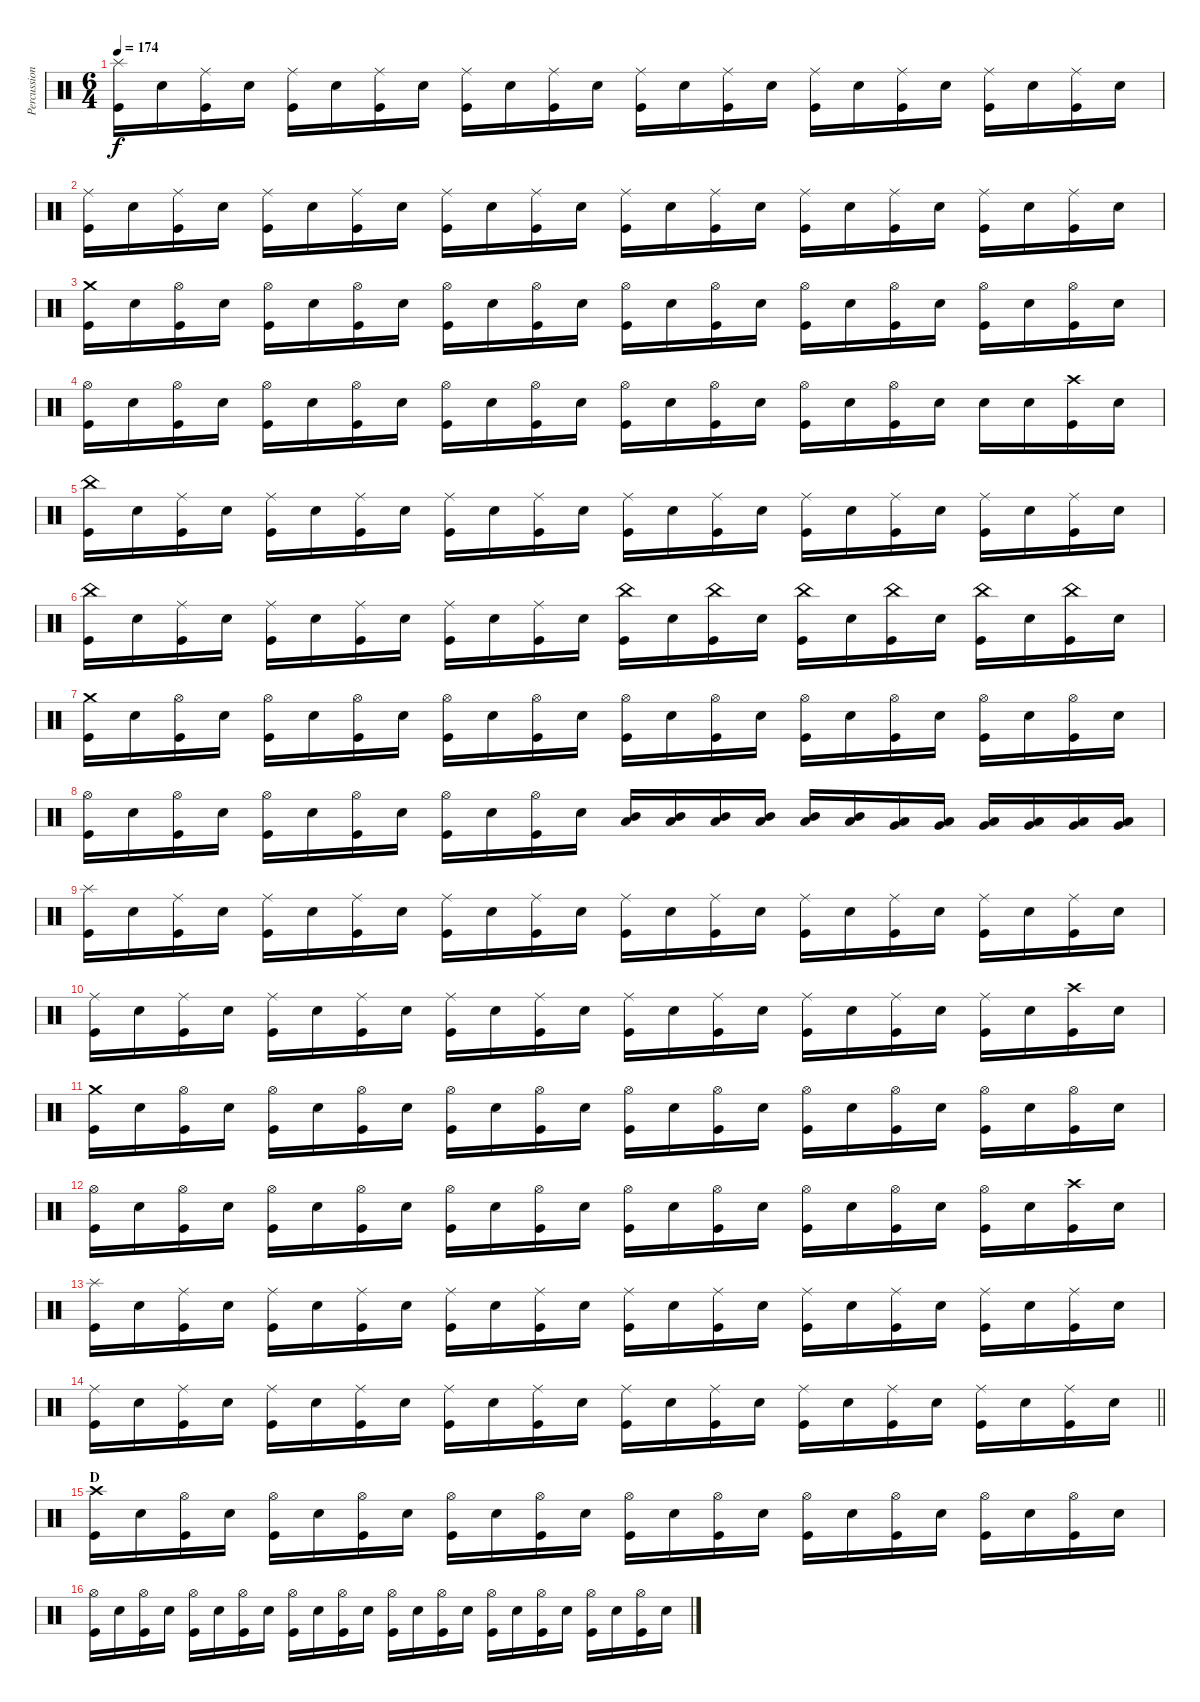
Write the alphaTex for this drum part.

\track ("Percussion" "Percussion") {instrument percussion}
\staff {score}
\articulation defaults
\ts (6 4)
\tempo 174
\clef neutral
\ks c
("Splash (hit)" "Kick (hit)").16{dy f} "Snare (hit) 2".16 ("Ride (middle)" "Kick (hit)").16 "Snare (hit) 2".16 ("Ride (middle)" "Kick (hit)").16 "Snare (hit) 2".16 ("Ride (middle)" "Kick (hit)").16 "Snare (hit) 2".16 ("Ride (middle)" "Kick (hit)").16 "Snare (hit) 2".16 ("Ride (middle)" "Kick (hit)").16 "Snare (hit) 2".16 ("Ride (middle)" "Kick (hit)").16 "Snare (hit) 2".16 ("Ride (middle)" "Kick (hit)").16 "Snare (hit) 2".16 ("Ride (middle)" "Kick (hit)").16 "Snare (hit) 2".16 ("Ride (middle)" "Kick (hit)").16 "Snare (hit) 2".16 ("Ride (middle)" "Kick (hit)").16 "Snare (hit) 2".16 ("Ride (middle)" "Kick (hit)").16 "Snare (hit) 2".16 |
("Ride (middle)" "Kick (hit)").16 "Snare (hit) 2".16 ("Ride (middle)" "Kick (hit)").16 "Snare (hit) 2".16 ("Ride (middle)" "Kick (hit)").16 "Snare (hit) 2".16 ("Ride (middle)" "Kick (hit)").16 "Snare (hit) 2".16 ("Ride (middle)" "Kick (hit)").16 "Snare (hit) 2".16 ("Ride (middle)" "Kick (hit)").16 "Snare (hit) 2".16 ("Ride (middle)" "Kick (hit)").16 "Snare (hit) 2".16 ("Ride (middle)" "Kick (hit)").16 "Snare (hit) 2".16 ("Ride (middle)" "Kick (hit)").16 "Snare (hit) 2".16 ("Ride (middle)" "Kick (hit)").16 "Snare (hit) 2".16 ("Ride (middle)" "Kick (hit)").16 "Snare (hit) 2".16 ("Ride (middle)" "Kick (hit)").16 "Snare (hit) 2".16 |
("Crash medium (hit)" "Kick (hit)").16 "Snare (hit) 2".16 ("Hi-Hat (open)" "Kick (hit)").16 "Snare (hit) 2".16 ("Hi-Hat (open)" "Kick (hit)").16 "Snare (hit) 2".16 ("Hi-Hat (open)" "Kick (hit)").16 "Snare (hit) 2".16 ("Hi-Hat (open)" "Kick (hit)").16 "Snare (hit) 2".16 ("Hi-Hat (open)" "Kick (hit)").16 "Snare (hit) 2".16 ("Hi-Hat (open)" "Kick (hit)").16 "Snare (hit) 2".16 ("Hi-Hat (open)" "Kick (hit)").16 "Snare (hit) 2".16 ("Hi-Hat (open)" "Kick (hit)").16 "Snare (hit) 2".16 ("Hi-Hat (open)" "Kick (hit)").16 "Snare (hit) 2".16 ("Hi-Hat (open)" "Kick (hit)").16 "Snare (hit) 2".16 ("Hi-Hat (open)" "Kick (hit)").16 "Snare (hit) 2".16 |
("Hi-Hat (open)" "Kick (hit)").16 "Snare (hit) 2".16 ("Hi-Hat (open)" "Kick (hit)").16 "Snare (hit) 2".16 ("Hi-Hat (open)" "Kick (hit)").16 "Snare (hit) 2".16 ("Hi-Hat (open)" "Kick (hit)").16 "Snare (hit) 2".16 ("Hi-Hat (open)" "Kick (hit)").16 "Snare (hit) 2".16 ("Hi-Hat (open)" "Kick (hit)").16 "Snare (hit) 2".16 ("Hi-Hat (open)" "Kick (hit)").16 "Snare (hit) 2".16 ("Hi-Hat (open)" "Kick (hit)").16 "Snare (hit) 2".16 ("Hi-Hat (open)" "Kick (hit)").16 "Snare (hit) 2".16 ("Hi-Hat (open)" "Kick (hit)").16 "Snare (hit) 2".16 "Snare (hit) 2".16 "Snare (hit) 2".16 ("Crash high (hit)" "Kick (hit)").16 "Snare (hit) 2".16 |
("China (hit)" "Kick (hit)").16 "Snare (hit) 2".16 ("Ride (middle)" "Kick (hit)").16 "Snare (hit) 2".16 ("Ride (middle)" "Kick (hit)").16 "Snare (hit) 2".16 ("Ride (middle)" "Kick (hit)").16 "Snare (hit) 2".16 ("Ride (middle)" "Kick (hit)").16 "Snare (hit) 2".16 ("Ride (middle)" "Kick (hit)").16 "Snare (hit) 2".16 ("Ride (middle)" "Kick (hit)").16 "Snare (hit) 2".16 ("Ride (middle)" "Kick (hit)").16 "Snare (hit) 2".16 ("Ride (middle)" "Kick (hit)").16 "Snare (hit) 2".16 ("Ride (middle)" "Kick (hit)").16 "Snare (hit) 2".16 ("Ride (middle)" "Kick (hit)").16 "Snare (hit) 2".16 ("Ride (middle)" "Kick (hit)").16 "Snare (hit) 2".16 |
("China (hit)" "Kick (hit)").16 "Snare (hit) 2".16 ("Ride (middle)" "Kick (hit)").16 "Snare (hit) 2".16 ("Ride (middle)" "Kick (hit)").16 "Snare (hit) 2".16 ("Ride (middle)" "Kick (hit)").16 "Snare (hit) 2".16 ("Ride (middle)" "Kick (hit)").16 "Snare (hit) 2".16 ("Ride (middle)" "Kick (hit)").16 "Snare (hit) 2".16 ("China (hit)" "Kick (hit)").16 "Snare (hit) 2".16 ("China (hit)" "Kick (hit)").16 "Snare (hit) 2".16 ("China (hit)" "Kick (hit)").16 "Snare (hit) 2".16 ("China (hit)" "Kick (hit)").16 "Snare (hit) 2".16 ("China (hit)" "Kick (hit)").16 "Snare (hit) 2".16 ("China (hit)" "Kick (hit)").16 "Snare (hit) 2".16 |
("Crash medium (hit)" "Kick (hit)").16 "Snare (hit) 2".16 ("Hi-Hat (open)" "Kick (hit)").16 "Snare (hit) 2".16 ("Hi-Hat (open)" "Kick (hit)").16 "Snare (hit) 2".16 ("Hi-Hat (open)" "Kick (hit)").16 "Snare (hit) 2".16 ("Hi-Hat (open)" "Kick (hit)").16 "Snare (hit) 2".16 ("Hi-Hat (open)" "Kick (hit)").16 "Snare (hit) 2".16 ("Hi-Hat (open)" "Kick (hit)").16 "Snare (hit) 2".16 ("Hi-Hat (open)" "Kick (hit)").16 "Snare (hit) 2".16 ("Hi-Hat (open)" "Kick (hit)").16 "Snare (hit) 2".16 ("Hi-Hat (open)" "Kick (hit)").16 "Snare (hit) 2".16 ("Hi-Hat (open)" "Kick (hit)").16 "Snare (hit) 2".16 ("Hi-Hat (open)" "Kick (hit)").16 "Snare (hit) 2".16 |
("Hi-Hat (open)" "Kick (hit)").16 "Snare (hit) 2".16 ("Hi-Hat (open)" "Kick (hit)").16 "Snare (hit) 2".16 ("Hi-Hat (open)" "Kick (hit)").16 "Snare (hit) 2".16 ("Hi-Hat (open)" "Kick (hit)").16 "Snare (hit) 2".16 ("Hi-Hat (open)" "Kick (hit)").16 "Snare (hit) 2".16 ("Hi-Hat (open)" "Kick (hit)").16 "Snare (hit) 2".16 ("Mid Tom (hit)" "Low Tom (hit)").16 ("Mid Tom (hit)" "Low Tom (hit)").16 ("Mid Tom (hit)" "Low Tom (hit)").16 ("Mid Tom (hit)" "Low Tom (hit)").16 ("Mid Tom (hit)" "Low Tom (hit)").16 ("Mid Tom (hit)" "Low Tom (hit)").16 ("Low Tom (hit)" "Very Low Tom (hit)").16 ("Low Tom (hit)" "Very Low Tom (hit)").16 ("Low Tom (hit)" "Very Low Tom (hit)").16 ("Low Tom (hit)" "Very Low Tom (hit)").16 ("Low Tom (hit)" "Very Low Tom (hit)").16 ("Low Tom (hit)" "Very Low Tom (hit)").16 |
("Splash (hit)" "Kick (hit)").16 "Snare (hit) 2".16 ("Ride (middle)" "Kick (hit)").16 "Snare (hit) 2".16 ("Ride (middle)" "Kick (hit)").16 "Snare (hit) 2".16 ("Ride (middle)" "Kick (hit)").16 "Snare (hit) 2".16 ("Ride (middle)" "Kick (hit)").16 "Snare (hit) 2".16 ("Ride (middle)" "Kick (hit)").16 "Snare (hit) 2".16 ("Ride (middle)" "Kick (hit)").16 "Snare (hit) 2".16 ("Ride (middle)" "Kick (hit)").16 "Snare (hit) 2".16 ("Ride (middle)" "Kick (hit)").16 "Snare (hit) 2".16 ("Ride (middle)" "Kick (hit)").16 "Snare (hit) 2".16 ("Ride (middle)" "Kick (hit)").16 "Snare (hit) 2".16 ("Ride (middle)" "Kick (hit)").16 "Snare (hit) 2".16 |
("Ride (middle)" "Kick (hit)").16 "Snare (hit) 2".16 ("Ride (middle)" "Kick (hit)").16 "Snare (hit) 2".16 ("Ride (middle)" "Kick (hit)").16 "Snare (hit) 2".16 ("Ride (middle)" "Kick (hit)").16 "Snare (hit) 2".16 ("Ride (middle)" "Kick (hit)").16 "Snare (hit) 2".16 ("Ride (middle)" "Kick (hit)").16 "Snare (hit) 2".16 ("Ride (middle)" "Kick (hit)").16 "Snare (hit) 2".16 ("Ride (middle)" "Kick (hit)").16 "Snare (hit) 2".16 ("Ride (middle)" "Kick (hit)").16 "Snare (hit) 2".16 ("Ride (middle)" "Kick (hit)").16 "Snare (hit) 2".16 ("Ride (middle)" "Kick (hit)").16 "Snare (hit) 2".16 ("Crash high (hit)" "Kick (hit)").16 "Snare (hit) 2".16 |
("Crash medium (hit)" "Kick (hit)").16 "Snare (hit) 2".16 ("Hi-Hat (open)" "Kick (hit)").16 "Snare (hit) 2".16 ("Hi-Hat (open)" "Kick (hit)").16 "Snare (hit) 2".16 ("Hi-Hat (open)" "Kick (hit)").16 "Snare (hit) 2".16 ("Hi-Hat (open)" "Kick (hit)").16 "Snare (hit) 2".16 ("Hi-Hat (open)" "Kick (hit)").16 "Snare (hit) 2".16 ("Hi-Hat (open)" "Kick (hit)").16 "Snare (hit) 2".16 ("Hi-Hat (open)" "Kick (hit)").16 "Snare (hit) 2".16 ("Hi-Hat (open)" "Kick (hit)").16 "Snare (hit) 2".16 ("Hi-Hat (open)" "Kick (hit)").16 "Snare (hit) 2".16 ("Hi-Hat (open)" "Kick (hit)").16 "Snare (hit) 2".16 ("Hi-Hat (open)" "Kick (hit)").16 "Snare (hit) 2".16 |
("Hi-Hat (open)" "Kick (hit)").16 "Snare (hit) 2".16 ("Hi-Hat (open)" "Kick (hit)").16 "Snare (hit) 2".16 ("Hi-Hat (open)" "Kick (hit)").16 "Snare (hit) 2".16 ("Hi-Hat (open)" "Kick (hit)").16 "Snare (hit) 2".16 ("Hi-Hat (open)" "Kick (hit)").16 "Snare (hit) 2".16 ("Hi-Hat (open)" "Kick (hit)").16 "Snare (hit) 2".16 ("Hi-Hat (open)" "Kick (hit)").16 "Snare (hit) 2".16 ("Hi-Hat (open)" "Kick (hit)").16 "Snare (hit) 2".16 ("Hi-Hat (open)" "Kick (hit)").16 "Snare (hit) 2".16 ("Hi-Hat (open)" "Kick (hit)").16 "Snare (hit) 2".16 ("Hi-Hat (open)" "Kick (hit)").16 "Snare (hit) 2".16 ("Crash high (hit)" "Kick (hit)").16 "Snare (hit) 2".16 |
("Splash (hit)" "Kick (hit)").16 "Snare (hit) 2".16 ("Ride (middle)" "Kick (hit)").16 "Snare (hit) 2".16 ("Ride (middle)" "Kick (hit)").16 "Snare (hit) 2".16 ("Ride (middle)" "Kick (hit)").16 "Snare (hit) 2".16 ("Ride (middle)" "Kick (hit)").16 "Snare (hit) 2".16 ("Ride (middle)" "Kick (hit)").16 "Snare (hit) 2".16 ("Ride (middle)" "Kick (hit)").16 "Snare (hit) 2".16 ("Ride (middle)" "Kick (hit)").16 "Snare (hit) 2".16 ("Ride (middle)" "Kick (hit)").16 "Snare (hit) 2".16 ("Ride (middle)" "Kick (hit)").16 "Snare (hit) 2".16 ("Ride (middle)" "Kick (hit)").16 "Snare (hit) 2".16 ("Ride (middle)" "Kick (hit)").16 "Snare (hit) 2".16 |
\barLineRight lightlight
("Ride (middle)" "Kick (hit)").16 "Snare (hit) 2".16 ("Ride (middle)" "Kick (hit)").16 "Snare (hit) 2".16 ("Ride (middle)" "Kick (hit)").16 "Snare (hit) 2".16 ("Ride (middle)" "Kick (hit)").16 "Snare (hit) 2".16 ("Ride (middle)" "Kick (hit)").16 "Snare (hit) 2".16 ("Ride (middle)" "Kick (hit)").16 "Snare (hit) 2".16 ("Ride (middle)" "Kick (hit)").16 "Snare (hit) 2".16 ("Ride (middle)" "Kick (hit)").16 "Snare (hit) 2".16 ("Ride (middle)" "Kick (hit)").16 "Snare (hit) 2".16 ("Ride (middle)" "Kick (hit)").16 "Snare (hit) 2".16 ("Ride (middle)" "Kick (hit)").16 "Snare (hit) 2".16 ("Ride (middle)" "Kick (hit)").16 "Snare (hit) 2".16 |
\section ("" "D")
("Crash high (hit)" "Kick (hit)").16 "Snare (hit) 2".16 ("Hi-Hat (open)" "Kick (hit)").16 "Snare (hit) 2".16 ("Hi-Hat (open)" "Kick (hit)").16 "Snare (hit) 2".16 ("Hi-Hat (open)" "Kick (hit)").16 "Snare (hit) 2".16 ("Hi-Hat (open)" "Kick (hit)").16 "Snare (hit) 2".16 ("Hi-Hat (open)" "Kick (hit)").16 "Snare (hit) 2".16 ("Hi-Hat (open)" "Kick (hit)").16 "Snare (hit) 2".16 ("Hi-Hat (open)" "Kick (hit)").16 "Snare (hit) 2".16 ("Hi-Hat (open)" "Kick (hit)").16 "Snare (hit) 2".16 ("Hi-Hat (open)" "Kick (hit)").16 "Snare (hit) 2".16 ("Hi-Hat (open)" "Kick (hit)").16 "Snare (hit) 2".16 ("Hi-Hat (open)" "Kick (hit)").16 "Snare (hit) 2".16 |
("Hi-Hat (open)" "Kick (hit)").16 "Snare (hit) 2".16 ("Hi-Hat (open)" "Kick (hit)").16 "Snare (hit) 2".16 ("Hi-Hat (open)" "Kick (hit)").16 "Snare (hit) 2".16 ("Hi-Hat (open)" "Kick (hit)").16 "Snare (hit) 2".16 ("Hi-Hat (open)" "Kick (hit)").16 "Snare (hit) 2".16 ("Hi-Hat (open)" "Kick (hit)").16 "Snare (hit) 2".16 ("Hi-Hat (open)" "Kick (hit)").16 "Snare (hit) 2".16 ("Hi-Hat (open)" "Kick (hit)").16 "Snare (hit) 2".16 ("Hi-Hat (open)" "Kick (hit)").16 "Snare (hit) 2".16 ("Hi-Hat (open)" "Kick (hit)").16 "Snare (hit) 2".16 ("Hi-Hat (open)" "Kick (hit)").16 "Snare (hit) 2".16 ("Hi-Hat (open)" "Kick (hit)").16 "Snare (hit) 2".16
